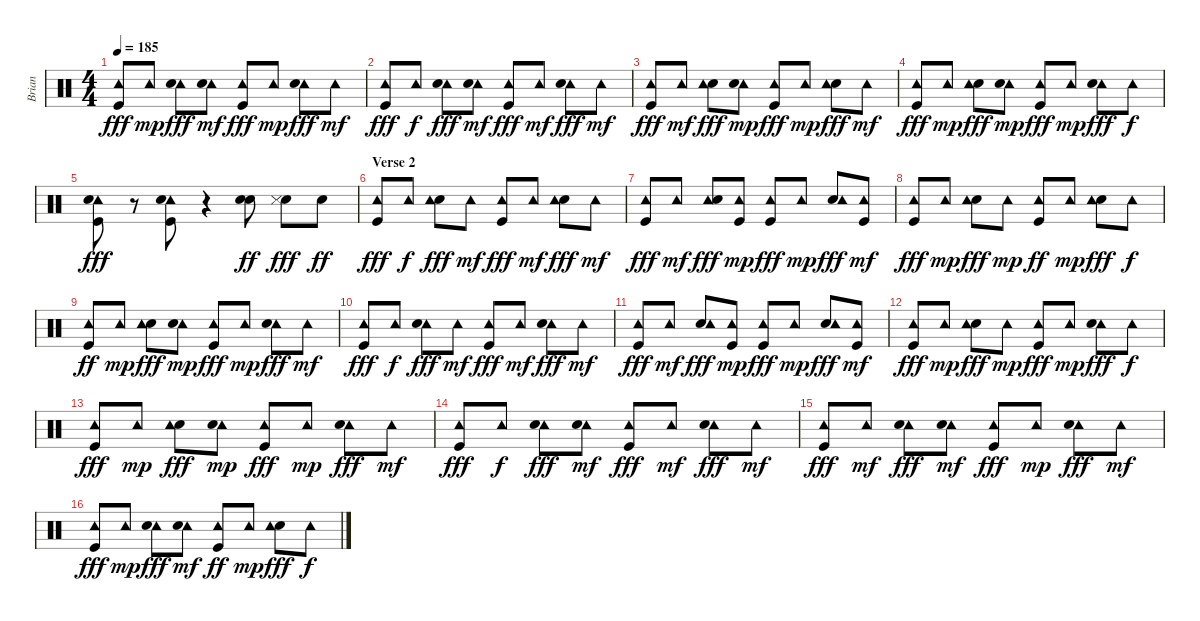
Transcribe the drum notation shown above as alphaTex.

\track ("Brian" "Brian") {instrument percussion}
\staff {score}
\articulation defaults
\ts (4 4)
\tempo 185
\clef neutral
\ks c
("Tambourine (hit)" "Kick (hit)").8{dy fff} "Tambourine (hit)".8{dy mp} ("Tambourine (hit)" "Electric Snare (hit)").8{dy fff} ("Tambourine (hit)" "Electric Snare (hit)").8{dy mf} ("Kick (hit)" "Tambourine (hit)").8{dy fff} "Tambourine (hit)".8{dy mp} ("Tambourine (hit)" "Electric Snare (hit)").8{dy fff} "Tambourine (hit)".8{dy mf} |
("Tambourine (hit)" "Kick (hit)").8{dy fff} "Tambourine (hit)".8{dy f} ("Tambourine (hit)" "Electric Snare (hit)").8{dy fff} ("Tambourine (hit)" "Electric Snare (hit)").8{dy mf} ("Tambourine (hit)" "Kick (hit)").8{dy fff} "Tambourine (hit)".8{dy mf} ("Tambourine (hit)" "Electric Snare (hit)").8{dy fff} "Tambourine (hit)".8{dy mf} |
("Tambourine (hit)" "Kick (hit)").8{dy fff} "Tambourine (hit)".8{dy mf} ("Electric Snare (hit)" "Tambourine (hit)").8{dy fff} ("Tambourine (hit)" "Electric Snare (hit)").8{dy mp} ("Tambourine (hit)" "Kick (hit)").8{dy fff} "Tambourine (hit)".8{dy mp} ("Electric Snare (hit)" "Tambourine (hit)").8{dy fff} "Tambourine (hit)".8{dy mf} |
("Kick (hit)" "Tambourine (hit)").8{dy fff} "Tambourine (hit)".8{dy mp} ("Electric Snare (hit)" "Tambourine (hit)").8{dy fff} ("Tambourine (hit)" "Electric Snare (hit)").8{dy mp} ("Tambourine (hit)" "Kick (hit)").8{dy fff} "Tambourine (hit)".8{dy mp} ("Tambourine (hit)" "Electric Snare (hit)").8{dy fff} "Tambourine (hit)".8{dy f} |
("Tambourine (hit)" "Electric Snare (hit)" "Kick (hit)").8{dy fff} r.8 ("Tambourine (hit)" "Electric Snare (hit)" "Kick (hit)").8 r.4 ("Electric Snare (hit)" "Electric Snare (hit)").8{dy ff} ("Electric Snare (hit)" "Snare (side stick) 3").8{dy fff} "Electric Snare (hit)".8{dy ff} |
\section ("" "Verse 2")
("Kick (hit)" "Tambourine (hit)").8{dy fff} "Tambourine (hit)".8{dy f} ("Electric Snare (hit)" "Tambourine (hit)").8{dy fff} "Tambourine (hit)".8{dy mf} ("Kick (hit)" "Tambourine (hit)").8{dy fff} "Tambourine (hit)".8{dy mf} ("Electric Snare (hit)" "Tambourine (hit)").8{dy fff} "Tambourine (hit)".8{dy mf} |
("Kick (hit)" "Tambourine (hit)").8{dy fff} "Tambourine (hit)".8{dy mf} ("Tambourine (hit)" "Electric Snare (hit)").8{dy fff} ("Kick (hit)" "Tambourine (hit)").8{dy mp} ("Tambourine (hit)" "Kick (hit)").8{dy fff} "Tambourine (hit)".8{dy mp} ("Electric Snare (hit)" "Tambourine (hit)").8{dy fff} ("Kick (hit)" "Tambourine (hit)").8{dy mf} |
("Tambourine (hit)" "Kick (hit)").8{dy fff} "Tambourine (hit)".8{dy mp} ("Electric Snare (hit)" "Tambourine (hit)").8{dy fff} "Tambourine (hit)".8{dy mp} ("Tambourine (hit)" "Kick (hit)").8{dy ff} "Tambourine (hit)".8{dy mp} ("Electric Snare (hit)" "Tambourine (hit)").8{dy fff} "Tambourine (hit)".8{dy f} |
("Tambourine (hit)" "Kick (hit)").8{dy ff} "Tambourine (hit)".8{dy mp} ("Electric Snare (hit)" "Tambourine (hit)").8{dy fff} ("Tambourine (hit)" "Electric Snare (hit)").8{dy mp} ("Tambourine (hit)" "Kick (hit)").8{dy fff} "Tambourine (hit)".8{dy mp} ("Tambourine (hit)" "Electric Snare (hit)").8{dy fff} "Tambourine (hit)".8{dy mf} |
("Tambourine (hit)" "Kick (hit)").8{dy fff} "Tambourine (hit)".8{dy f} ("Tambourine (hit)" "Electric Snare (hit)").8{dy fff} "Tambourine (hit)".8{dy mf} ("Tambourine (hit)" "Kick (hit)").8{dy fff} "Tambourine (hit)".8{dy mf} ("Tambourine (hit)" "Electric Snare (hit)").8{dy fff} "Tambourine (hit)".8{dy mf} |
("Tambourine (hit)" "Kick (hit)").8{dy fff} "Tambourine (hit)".8{dy mf} ("Electric Snare (hit)" "Tambourine (hit)").8{dy fff} ("Kick (hit)" "Tambourine (hit)").8{dy mp} ("Kick (hit)" "Tambourine (hit)").8{dy fff} "Tambourine (hit)".8{dy mp} ("Electric Snare (hit)" "Tambourine (hit)").8{dy fff} ("Kick (hit)" "Tambourine (hit)").8{dy mf} |
("Tambourine (hit)" "Kick (hit)").8{dy fff} "Tambourine (hit)".8{dy mp} ("Electric Snare (hit)" "Tambourine (hit)").8{dy fff} "Tambourine (hit)".8{dy mp} ("Tambourine (hit)" "Kick (hit)").8{dy fff} "Tambourine (hit)".8{dy mp} ("Tambourine (hit)" "Electric Snare (hit)").8{dy fff} "Tambourine (hit)".8{dy f} |
("Tambourine (hit)" "Kick (hit)").8{dy fff} "Tambourine (hit)".8{dy mp} ("Electric Snare (hit)" "Tambourine (hit)").8{dy fff} ("Tambourine (hit)" "Electric Snare (hit)").8{dy mp} ("Tambourine (hit)" "Kick (hit)").8{dy fff} "Tambourine (hit)".8{dy mp} ("Tambourine (hit)" "Electric Snare (hit)").8{dy fff} "Tambourine (hit)".8{dy mf} |
("Tambourine (hit)" "Kick (hit)").8{dy fff} "Tambourine (hit)".8{dy f} ("Tambourine (hit)" "Electric Snare (hit)").8{dy fff} ("Tambourine (hit)" "Electric Snare (hit)").8{dy mf} ("Kick (hit)" "Tambourine (hit)").8{dy fff} "Tambourine (hit)".8{dy mf} ("Tambourine (hit)" "Electric Snare (hit)").8{dy fff} "Tambourine (hit)".8{dy mf} |
("Tambourine (hit)" "Kick (hit)").8{dy fff} "Tambourine (hit)".8{dy mf} ("Tambourine (hit)" "Electric Snare (hit)").8{dy fff} ("Tambourine (hit)" "Electric Snare (hit)").8{dy mf} ("Tambourine (hit)" "Kick (hit)").8{dy fff} "Tambourine (hit)".8{dy mp} ("Tambourine (hit)" "Electric Snare (hit)").8{dy fff} "Tambourine (hit)".8{dy mf} |
("Tambourine (hit)" "Kick (hit)").8{dy fff} "Tambourine (hit)".8{dy mp} ("Tambourine (hit)" "Electric Snare (hit)").8{dy fff} ("Tambourine (hit)" "Electric Snare (hit)").8{dy mf} ("Tambourine (hit)" "Kick (hit)").8{dy ff} "Tambourine (hit)".8{dy mp} ("Electric Snare (hit)" "Tambourine (hit)").8{dy fff} "Tambourine (hit)".8{dy f}
